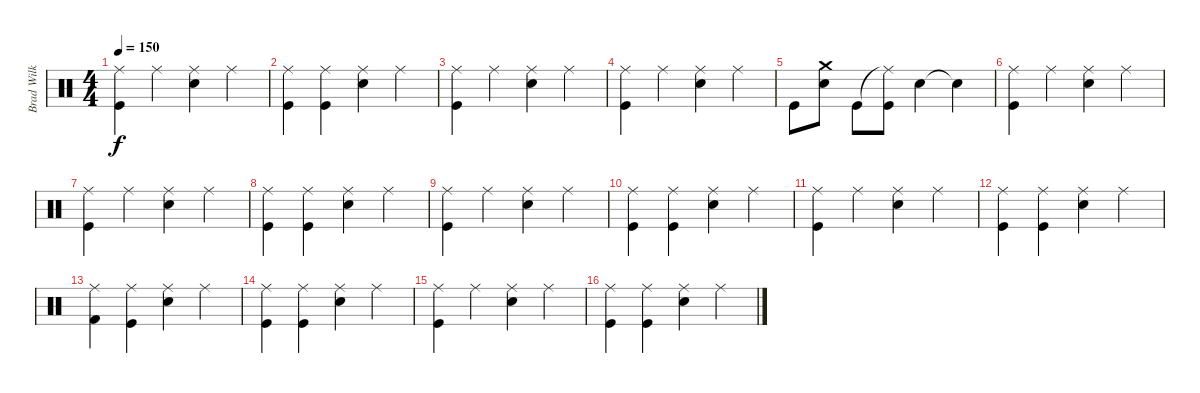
\track ("Brad Wilk" "Brad Wilk") {instrument percussion}
\staff {score}
\articulation defaults
\ts (4 4)
\tempo 150
\clef neutral
\ks c
("Ride (middle)" "Kick (hit)").4{dy f} "Ride (middle)".4 ("Ride (middle)" "Electric Snare (hit)").4 "Ride (middle)".4 |
("Ride (middle)" "Kick (hit)").4 ("Ride (middle)" "Kick (hit)").4 ("Ride (middle)" "Electric Snare (hit)").4 "Ride (middle)".4 |
("Ride (middle)" "Kick (hit)").4 "Ride (middle)".4 ("Ride (middle)" "Electric Snare (hit)").4 "Ride (middle)".4 |
("Ride (middle)" "Kick (hit)").4 "Ride (middle)".4 ("Ride (middle)" "Electric Snare (hit)").4 "Ride (middle)".4 |
"Kick (hit)".8 ("Crash medium (hit)" "Electric Snare (hit)").8 "Kick (hit)".8 ("Ride (middle)"{t} "Kick (hit)").8 "Electric Snare (hit)".4 "Snare (hit)"{t}.4 |
("Ride (middle)" "Kick (hit)").4 "Ride (middle)".4 ("Ride (middle)" "Electric Snare (hit)").4 "Ride (middle)".4 |
("Ride (middle)" "Kick (hit)").4 "Ride (middle)".4 ("Ride (middle)" "Electric Snare (hit)").4 "Ride (middle)".4 |
("Ride (middle)" "Kick (hit)").4 ("Ride (middle)" "Kick (hit)").4 ("Ride (middle)" "Electric Snare (hit)").4 "Ride (middle)".4 |
("Ride (middle)" "Kick (hit)").4 "Ride (middle)".4 ("Ride (middle)" "Electric Snare (hit)").4 "Ride (middle)".4 |
("Ride (middle)" "Kick (hit)").4 ("Ride (middle)" "Kick (hit)").4 ("Ride (middle)" "Electric Snare (hit)").4 "Ride (middle)".4 |
("Ride (middle)" "Kick (hit)").4 "Ride (middle)".4 ("Ride (middle)" "Electric Snare (hit)").4 "Ride (middle)".4 |
("Ride (middle)" "Kick (hit)").4 ("Ride (middle)" "Kick (hit)").4 ("Ride (middle)" "Electric Snare (hit)").4 "Ride (middle)".4 |
("Ride (middle)" "Kick (hit) 2").4 ("Ride (middle)" "Kick (hit)").4 ("Ride (middle)" "Electric Snare (hit)").4 "Ride (middle)".4 |
("Ride (middle)" "Kick (hit)").4 ("Ride (middle)" "Kick (hit)").4 ("Ride (middle)" "Electric Snare (hit)").4 "Ride (middle)".4 |
("Ride (middle)" "Kick (hit)").4 "Ride (middle)".4 ("Ride (middle)" "Electric Snare (hit)").4 "Ride (middle)".4 |
("Ride (middle)" "Kick (hit)").4 ("Ride (middle)" "Kick (hit)").4 ("Ride (middle)" "Electric Snare (hit)").4 "Ride (middle)".4
